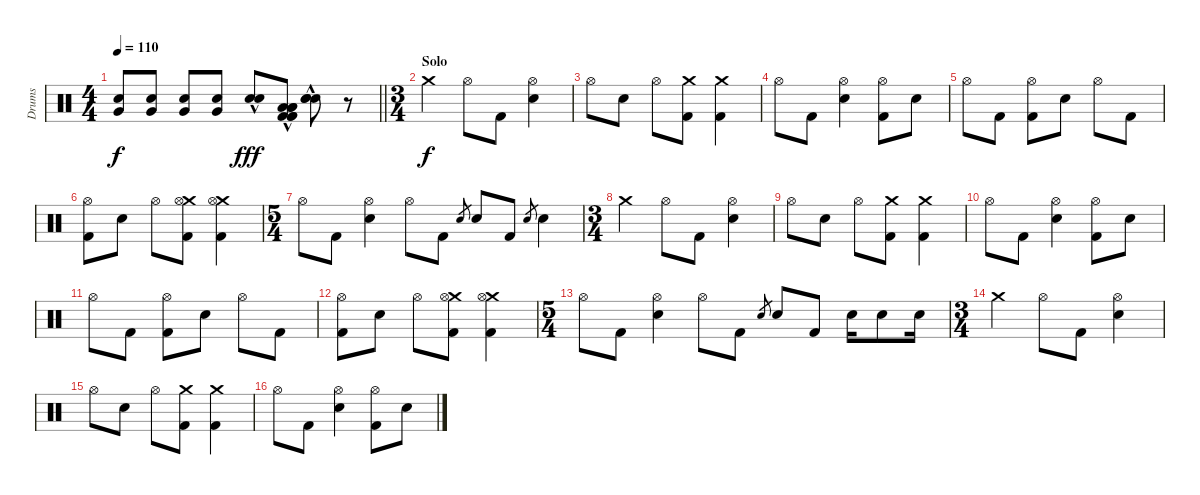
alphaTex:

\track ("Drums" "Drums") {instrument percussion}
\staff {score}
\articulation defaults
\ts (4 4)
\tempo 110
\clef neutral
\barLineRight lightlight
\ks c
("Very Low Tom (hit)" "Electric Snare (hit)").8{dy f} ("Very Low Tom (hit)" "Electric Snare (hit)").8 ("Very Low Tom (hit)" "Electric Snare (hit)").8 ("Very Low Tom (hit)" "Electric Snare (hit)").8 ("Electric Snare (hit)"{hac} "Electric Snare (hit)"{hac}).8{dy fff} ("Low Floor Tom (hit)" "Kick (hit) 2"{hac} "Low Floor Tom (hit)" "Low Floor Tom (hit)"{hac} "Kick (hit) 2" "Kick (hit) 2").8 ("Electric Snare (hit)" "Electric Snare (hit)"{hac} "Electric Snare (hit)"{hac}).8 r.8 |
\ts (3 4)
\section ("" "Solo")
"Crash medium (hit)".4{dy f} "Hi-Hat (open)".8 "Kick (hit) 2".8 ("Hi-Hat (open)" "Electric Snare (hit)").4 |
"Hi-Hat (open)".8 "Electric Snare (hit)".8 "Hi-Hat (open)".8 ("Crash medium (hit)" "Kick (hit) 2").8 ("Crash medium (hit)" "Kick (hit) 2").4 |
"Hi-Hat (open)".8 "Kick (hit) 2".8 ("Hi-Hat (open)" "Electric Snare (hit)").4 ("Hi-Hat (open)" "Kick (hit) 2").8 "Electric Snare (hit)".8 |
"Hi-Hat (open)".8 "Kick (hit) 2".8 ("Hi-Hat (open)" "Kick (hit) 2").8 "Electric Snare (hit)".8 "Hi-Hat (open)".8 "Kick (hit) 2".8 |
("Hi-Hat (open)" "Kick (hit) 2").8 "Electric Snare (hit)".8 "Hi-Hat (open)".8 ("Crash medium (hit)" "Hi-Hat (open)" "Kick (hit) 2").8 ("Crash medium (hit)" "Hi-Hat (open)" "Kick (hit) 2").4 |
\ts (5 4)
"Hi-Hat (open)".8 "Kick (hit) 2".8 ("Hi-Hat (open)" "Electric Snare (hit)").4 "Hi-Hat (open)".8 "Kick (hit) 2".8 "Electric Snare (hit)".8{gr} "Electric Snare (hit)".8 "Kick (hit) 2".8 "Electric Snare (hit)".8{gr} "Electric Snare (hit)".4 |
\ts (3 4)
"Crash medium (hit)".4 "Hi-Hat (open)".8 "Kick (hit) 2".8 ("Hi-Hat (open)" "Electric Snare (hit)").4 |
"Hi-Hat (open)".8 "Electric Snare (hit)".8 "Hi-Hat (open)".8 ("Crash medium (hit)" "Kick (hit) 2").8 ("Crash medium (hit)" "Kick (hit) 2").4 |
"Hi-Hat (open)".8 "Kick (hit) 2".8 ("Hi-Hat (open)" "Electric Snare (hit)").4 ("Hi-Hat (open)" "Kick (hit) 2").8 "Electric Snare (hit)".8 |
"Hi-Hat (open)".8 "Kick (hit) 2".8 ("Hi-Hat (open)" "Kick (hit) 2").8 "Electric Snare (hit)".8 "Hi-Hat (open)".8 "Kick (hit) 2".8 |
("Hi-Hat (open)" "Kick (hit) 2").8 "Electric Snare (hit)".8 "Hi-Hat (open)".8 ("Crash medium (hit)" "Hi-Hat (open)" "Kick (hit) 2").8 ("Crash medium (hit)" "Hi-Hat (open)" "Kick (hit) 2").4 |
\ts (5 4)
"Hi-Hat (open)".8 "Kick (hit) 2".8 ("Hi-Hat (open)" "Electric Snare (hit)").4 "Hi-Hat (open)".8 "Kick (hit) 2".8 "Electric Snare (hit)".8{gr} "Electric Snare (hit)".8 "Kick (hit) 2".8 "Electric Snare (hit)".16 "Electric Snare (hit)".8 "Electric Snare (hit)".16 |
\ts (3 4)
"Crash medium (hit)".4 "Hi-Hat (open)".8 "Kick (hit) 2".8 ("Hi-Hat (open)" "Electric Snare (hit)").4 |
"Hi-Hat (open)".8 "Electric Snare (hit)".8 "Hi-Hat (open)".8 ("Crash medium (hit)" "Kick (hit) 2").8 ("Crash medium (hit)" "Kick (hit) 2").4 |
"Hi-Hat (open)".8 "Kick (hit) 2".8 ("Hi-Hat (open)" "Electric Snare (hit)").4 ("Hi-Hat (open)" "Kick (hit) 2").8 "Electric Snare (hit)".8
